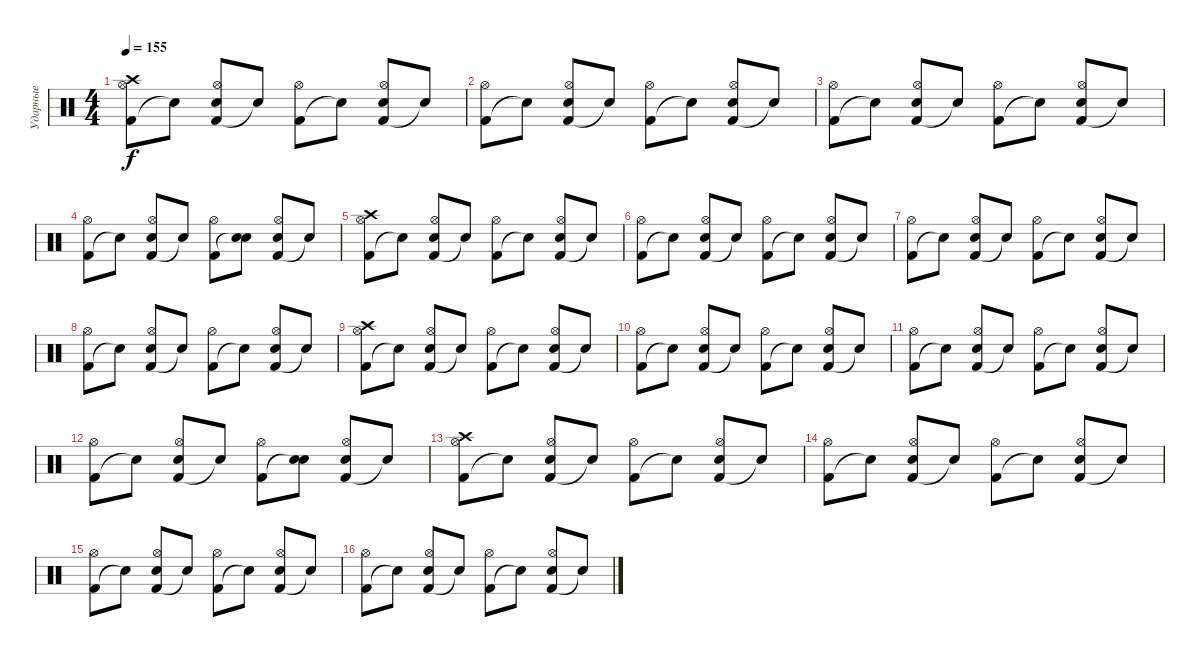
\track ("Ударные" "Ударные") {instrument percussion}
\staff {score}
\articulation defaults
\ts (4 4)
\tempo 155
\clef neutral
\ks c
("Kick (hit) 2" "Hi-Hat (open)" "Crash high (hit)").8{dy f} "Snare (hit)"{t}.8 ("Kick (hit) 2" "Hi-Hat (open)" "Snare (hit) 2").8 "Snare (hit)"{t}.8 ("Kick (hit) 2" "Hi-Hat (open)").8 "Snare (hit)"{t}.8 ("Kick (hit) 2" "Hi-Hat (open)" "Snare (hit) 2").8 "Snare (hit)"{t}.8 |
("Kick (hit) 2" "Hi-Hat (open)").8 "Snare (hit)"{t}.8 ("Kick (hit) 2" "Hi-Hat (open)" "Snare (hit) 2").8 "Snare (hit)"{t}.8 ("Kick (hit) 2" "Hi-Hat (open)").8 "Snare (hit)"{t}.8 ("Kick (hit) 2" "Hi-Hat (open)" "Snare (hit) 2").8 "Snare (hit)"{t}.8 |
("Kick (hit) 2" "Hi-Hat (open)").8 "Snare (hit)"{t}.8 ("Kick (hit) 2" "Hi-Hat (open)" "Snare (hit) 2").8 "Snare (hit)"{t}.8 ("Kick (hit) 2" "Hi-Hat (open)").8 "Snare (hit)"{t}.8 ("Kick (hit) 2" "Hi-Hat (open)" "Snare (hit) 2").8 "Snare (hit)"{t}.8 |
("Kick (hit) 2" "Hi-Hat (open)").8 "Snare (hit)"{t}.8 ("Kick (hit) 2" "Hi-Hat (open)" "Snare (hit) 2").8 "Snare (hit)"{t}.8 ("Kick (hit) 2" "Hi-Hat (open)").8 ("Snare (hit)"{t} "Snare (hit) 2").8 ("Kick (hit) 2" "Hi-Hat (open)" "Snare (hit) 2").8 "Snare (hit)"{t}.8 |
("Kick (hit) 2" "Hi-Hat (open)" "Crash high (hit)").8 "Snare (hit)"{t}.8 ("Kick (hit) 2" "Hi-Hat (open)" "Snare (hit) 2").8 "Snare (hit)"{t}.8 ("Kick (hit) 2" "Hi-Hat (open)").8 "Snare (hit)"{t}.8 ("Kick (hit) 2" "Hi-Hat (open)" "Snare (hit) 2").8 "Snare (hit)"{t}.8 |
("Kick (hit) 2" "Hi-Hat (open)").8 "Snare (hit)"{t}.8 ("Kick (hit) 2" "Hi-Hat (open)" "Snare (hit) 2").8 "Snare (hit)"{t}.8 ("Kick (hit) 2" "Hi-Hat (open)").8 "Snare (hit)"{t}.8 ("Kick (hit) 2" "Hi-Hat (open)" "Snare (hit) 2").8 "Snare (hit)"{t}.8 |
("Kick (hit) 2" "Hi-Hat (open)").8 "Snare (hit)"{t}.8 ("Kick (hit) 2" "Hi-Hat (open)" "Snare (hit) 2").8 "Snare (hit)"{t}.8 ("Kick (hit) 2" "Hi-Hat (open)").8 "Snare (hit)"{t}.8 ("Kick (hit) 2" "Hi-Hat (open)" "Snare (hit) 2").8 "Snare (hit)"{t}.8 |
("Kick (hit) 2" "Hi-Hat (open)").8 "Snare (hit)"{t}.8 ("Kick (hit) 2" "Hi-Hat (open)" "Snare (hit) 2").8 "Snare (hit)"{t}.8 ("Kick (hit) 2" "Hi-Hat (open)").8 "Snare (hit)"{t}.8 ("Kick (hit) 2" "Hi-Hat (open)" "Snare (hit) 2").8 "Snare (hit)"{t}.8 |
("Kick (hit) 2" "Hi-Hat (open)" "Crash high (hit)").8 "Snare (hit)"{t}.8 ("Kick (hit) 2" "Hi-Hat (open)" "Snare (hit) 2").8 "Snare (hit)"{t}.8 ("Kick (hit) 2" "Hi-Hat (open)").8 "Snare (hit)"{t}.8 ("Kick (hit) 2" "Hi-Hat (open)" "Snare (hit) 2").8 "Snare (hit)"{t}.8 |
("Kick (hit) 2" "Hi-Hat (open)").8 "Snare (hit)"{t}.8 ("Kick (hit) 2" "Hi-Hat (open)" "Snare (hit) 2").8 "Snare (hit)"{t}.8 ("Kick (hit) 2" "Hi-Hat (open)").8 "Snare (hit)"{t}.8 ("Kick (hit) 2" "Hi-Hat (open)" "Snare (hit) 2").8 "Snare (hit)"{t}.8 |
("Kick (hit) 2" "Hi-Hat (open)").8 "Snare (hit)"{t}.8 ("Kick (hit) 2" "Hi-Hat (open)" "Snare (hit) 2").8 "Snare (hit)"{t}.8 ("Kick (hit) 2" "Hi-Hat (open)").8 "Snare (hit)"{t}.8 ("Kick (hit) 2" "Hi-Hat (open)" "Snare (hit) 2").8 "Snare (hit)"{t}.8 |
("Kick (hit) 2" "Hi-Hat (open)").8 "Snare (hit)"{t}.8 ("Kick (hit) 2" "Hi-Hat (open)" "Snare (hit) 2").8 "Snare (hit)"{t}.8 ("Kick (hit) 2" "Hi-Hat (open)").8 ("Snare (hit)"{t} "Snare (hit) 2").8 ("Kick (hit) 2" "Hi-Hat (open)" "Snare (hit) 2").8 "Snare (hit)"{t}.8 |
("Kick (hit) 2" "Hi-Hat (open)" "Crash high (hit)").8 "Snare (hit)"{t}.8 ("Kick (hit) 2" "Hi-Hat (open)" "Snare (hit) 2").8 "Snare (hit)"{t}.8 ("Kick (hit) 2" "Hi-Hat (open)").8 "Snare (hit)"{t}.8 ("Kick (hit) 2" "Hi-Hat (open)" "Snare (hit) 2").8 "Snare (hit)"{t}.8 |
("Kick (hit) 2" "Hi-Hat (open)").8 "Snare (hit)"{t}.8 ("Kick (hit) 2" "Hi-Hat (open)" "Snare (hit) 2").8 "Snare (hit)"{t}.8 ("Kick (hit) 2" "Hi-Hat (open)").8 "Snare (hit)"{t}.8 ("Kick (hit) 2" "Hi-Hat (open)" "Snare (hit) 2").8 "Snare (hit)"{t}.8 |
("Kick (hit) 2" "Hi-Hat (open)").8 "Snare (hit)"{t}.8 ("Kick (hit) 2" "Hi-Hat (open)" "Snare (hit) 2").8 "Snare (hit)"{t}.8 ("Kick (hit) 2" "Hi-Hat (open)").8 "Snare (hit)"{t}.8 ("Kick (hit) 2" "Hi-Hat (open)" "Snare (hit) 2").8 "Snare (hit)"{t}.8 |
("Kick (hit) 2" "Hi-Hat (open)").8 "Snare (hit)"{t}.8 ("Kick (hit) 2" "Hi-Hat (open)" "Snare (hit) 2").8 "Snare (hit)"{t}.8 ("Kick (hit) 2" "Hi-Hat (open)").8 "Snare (hit)"{t}.8 ("Kick (hit) 2" "Hi-Hat (open)" "Snare (hit) 2").8 "Snare (hit)"{t}.8
